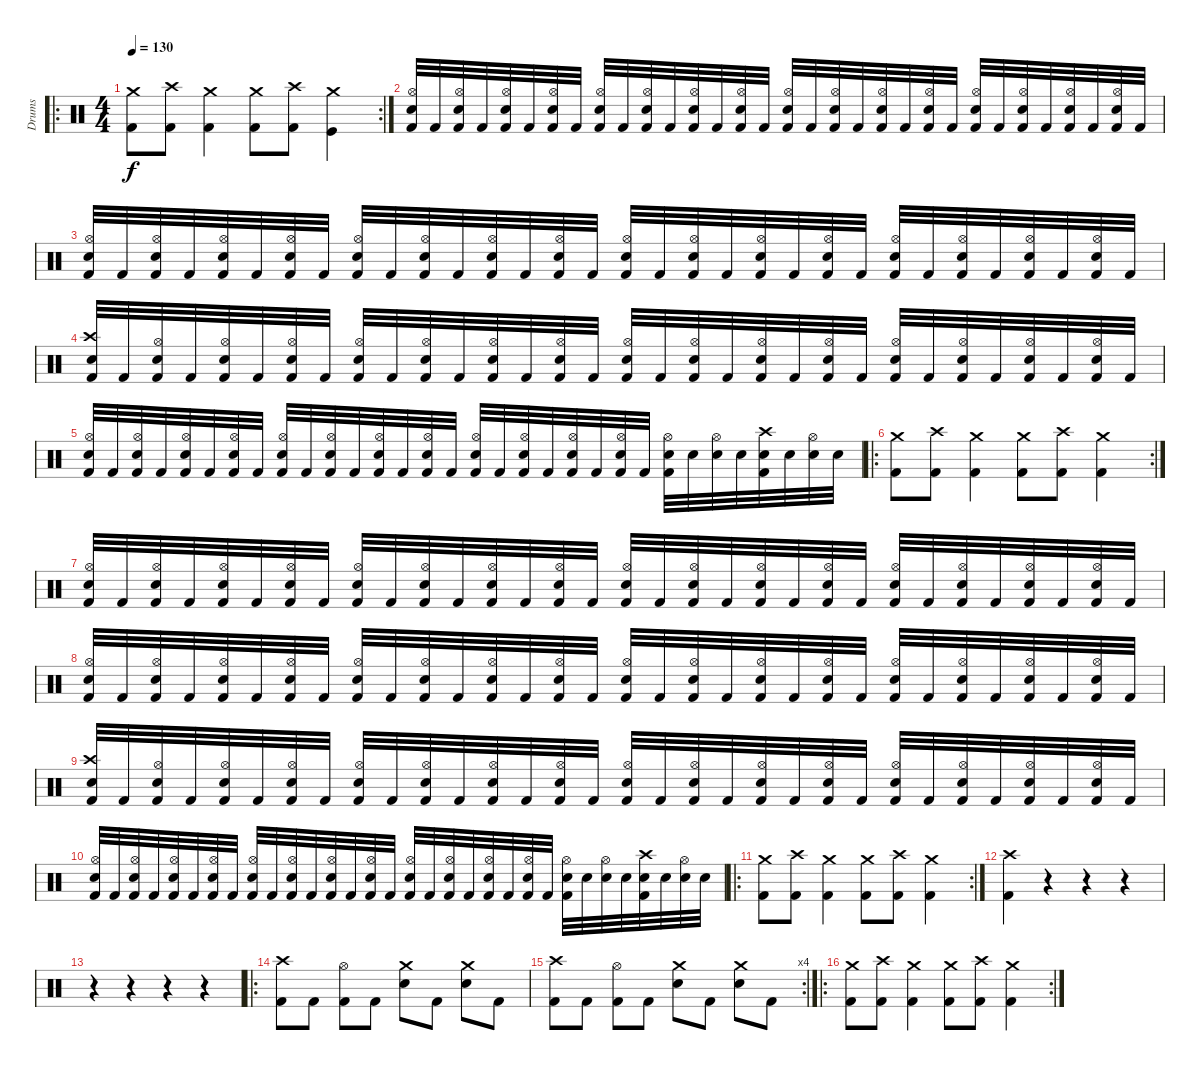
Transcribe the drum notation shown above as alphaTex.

\track ("Drums" "Drums") {instrument percussion}
\staff {score}
\articulation defaults
\ro
\rc 2
\ts (4 4)
\tempo 130
\clef neutral
\ks c
("Crash medium (hit)" "Kick (hit) 2").8{dy f} ("Crash high (hit)" "Kick (hit) 2").8 ("Crash medium (hit)" "Kick (hit) 2").4 ("Crash medium (hit)" "Kick (hit) 2").8 ("Crash high (hit)" "Kick (hit) 2").8 ("Crash medium (hit)" "Kick (hit)").4 |
("Hi-Hat (open)" "Electric Snare (hit)" "Kick (hit) 2").32 "Kick (hit) 2".32 ("Hi-Hat (open)" "Electric Snare (hit)" "Kick (hit) 2").32 "Kick (hit) 2".32 ("Hi-Hat (open)" "Electric Snare (hit)" "Kick (hit) 2").32 "Kick (hit) 2".32 ("Hi-Hat (open)" "Electric Snare (hit)" "Kick (hit) 2").32 "Kick (hit) 2".32 ("Hi-Hat (open)" "Electric Snare (hit)" "Kick (hit) 2").32 "Kick (hit) 2".32 ("Hi-Hat (open)" "Electric Snare (hit)" "Kick (hit) 2").32 "Kick (hit) 2".32 ("Hi-Hat (open)" "Electric Snare (hit)" "Kick (hit) 2").32 "Kick (hit) 2".32 ("Hi-Hat (open)" "Electric Snare (hit)" "Kick (hit) 2").32 "Kick (hit) 2".32 ("Hi-Hat (open)" "Electric Snare (hit)" "Kick (hit) 2").32 "Kick (hit) 2".32 ("Hi-Hat (open)" "Electric Snare (hit)" "Kick (hit) 2").32 "Kick (hit) 2".32 ("Hi-Hat (open)" "Electric Snare (hit)" "Kick (hit) 2").32 "Kick (hit) 2".32 ("Hi-Hat (open)" "Electric Snare (hit)" "Kick (hit) 2").32 "Kick (hit) 2".32 ("Hi-Hat (open)" "Electric Snare (hit)" "Kick (hit) 2").32 "Kick (hit) 2".32 ("Hi-Hat (open)" "Electric Snare (hit)" "Kick (hit) 2").32 "Kick (hit) 2".32 ("Hi-Hat (open)" "Electric Snare (hit)" "Kick (hit) 2").32 "Kick (hit) 2".32 ("Hi-Hat (open)" "Electric Snare (hit)" "Kick (hit) 2").32 "Kick (hit) 2".32 |
("Hi-Hat (open)" "Electric Snare (hit)" "Kick (hit) 2").32 "Kick (hit) 2".32 ("Hi-Hat (open)" "Electric Snare (hit)" "Kick (hit) 2").32 "Kick (hit) 2".32 ("Hi-Hat (open)" "Electric Snare (hit)" "Kick (hit) 2").32 "Kick (hit) 2".32 ("Hi-Hat (open)" "Electric Snare (hit)" "Kick (hit) 2").32 "Kick (hit) 2".32 ("Hi-Hat (open)" "Electric Snare (hit)" "Kick (hit) 2").32 "Kick (hit) 2".32 ("Hi-Hat (open)" "Electric Snare (hit)" "Kick (hit) 2").32 "Kick (hit) 2".32 ("Hi-Hat (open)" "Electric Snare (hit)" "Kick (hit) 2").32 "Kick (hit) 2".32 ("Hi-Hat (open)" "Electric Snare (hit)" "Kick (hit) 2").32 "Kick (hit) 2".32 ("Hi-Hat (open)" "Electric Snare (hit)" "Kick (hit) 2").32 "Kick (hit) 2".32 ("Hi-Hat (open)" "Electric Snare (hit)" "Kick (hit) 2").32 "Kick (hit) 2".32 ("Hi-Hat (open)" "Electric Snare (hit)" "Kick (hit) 2").32 "Kick (hit) 2".32 ("Hi-Hat (open)" "Electric Snare (hit)" "Kick (hit) 2").32 "Kick (hit) 2".32 ("Hi-Hat (open)" "Electric Snare (hit)" "Kick (hit) 2").32 "Kick (hit) 2".32 ("Hi-Hat (open)" "Electric Snare (hit)" "Kick (hit) 2").32 "Kick (hit) 2".32 ("Hi-Hat (open)" "Electric Snare (hit)" "Kick (hit) 2").32 "Kick (hit) 2".32 ("Hi-Hat (open)" "Electric Snare (hit)" "Kick (hit) 2").32 "Kick (hit) 2".32 |
("Crash high (hit)" "Electric Snare (hit)" "Kick (hit) 2").32 "Kick (hit) 2".32 ("Hi-Hat (open)" "Electric Snare (hit)" "Kick (hit) 2").32 "Kick (hit) 2".32 ("Hi-Hat (open)" "Electric Snare (hit)" "Kick (hit) 2").32 "Kick (hit) 2".32 ("Hi-Hat (open)" "Electric Snare (hit)" "Kick (hit) 2").32 "Kick (hit) 2".32 ("Hi-Hat (open)" "Electric Snare (hit)" "Kick (hit) 2").32 "Kick (hit) 2".32 ("Hi-Hat (open)" "Electric Snare (hit)" "Kick (hit) 2").32 "Kick (hit) 2".32 ("Hi-Hat (open)" "Electric Snare (hit)" "Kick (hit) 2").32 "Kick (hit) 2".32 ("Hi-Hat (open)" "Electric Snare (hit)" "Kick (hit) 2").32 "Kick (hit) 2".32 ("Hi-Hat (open)" "Electric Snare (hit)" "Kick (hit) 2").32 "Kick (hit) 2".32 ("Hi-Hat (open)" "Electric Snare (hit)" "Kick (hit) 2").32 "Kick (hit) 2".32 ("Hi-Hat (open)" "Electric Snare (hit)" "Kick (hit) 2").32 "Kick (hit) 2".32 ("Hi-Hat (open)" "Electric Snare (hit)" "Kick (hit) 2").32 "Kick (hit) 2".32 ("Hi-Hat (open)" "Electric Snare (hit)" "Kick (hit) 2").32 "Kick (hit) 2".32 ("Hi-Hat (open)" "Electric Snare (hit)" "Kick (hit) 2").32 "Kick (hit) 2".32 ("Hi-Hat (open)" "Electric Snare (hit)" "Kick (hit) 2").32 "Kick (hit) 2".32 ("Hi-Hat (open)" "Electric Snare (hit)" "Kick (hit) 2").32 "Kick (hit) 2".32 |
("Hi-Hat (open)" "Electric Snare (hit)" "Kick (hit) 2").32 "Kick (hit) 2".32 ("Hi-Hat (open)" "Electric Snare (hit)" "Kick (hit) 2").32 "Kick (hit) 2".32 ("Hi-Hat (open)" "Electric Snare (hit)" "Kick (hit) 2").32 "Kick (hit) 2".32 ("Hi-Hat (open)" "Electric Snare (hit)" "Kick (hit) 2").32 "Kick (hit) 2".32 ("Hi-Hat (open)" "Electric Snare (hit)" "Kick (hit) 2").32 "Kick (hit) 2".32 ("Hi-Hat (open)" "Electric Snare (hit)" "Kick (hit) 2").32 "Kick (hit) 2".32 ("Hi-Hat (open)" "Electric Snare (hit)" "Kick (hit) 2").32 "Kick (hit) 2".32 ("Hi-Hat (open)" "Electric Snare (hit)" "Kick (hit) 2").32 "Kick (hit) 2".32 ("Hi-Hat (open)" "Electric Snare (hit)" "Kick (hit) 2").32 "Kick (hit) 2".32 ("Hi-Hat (open)" "Electric Snare (hit)" "Kick (hit) 2").32 "Kick (hit) 2".32 ("Hi-Hat (open)" "Electric Snare (hit)" "Kick (hit) 2").32 "Kick (hit) 2".32 ("Hi-Hat (open)" "Electric Snare (hit)" "Kick (hit) 2").32 "Kick (hit) 2".32 ("Hi-Hat (open)" "Electric Snare (hit)" "Kick (hit) 2").32 "Electric Snare (hit)".32 ("Hi-Hat (open)" "Electric Snare (hit)").32 "Electric Snare (hit)".32 ("Crash high (hit)" "Electric Snare (hit)" "Kick (hit) 2").32 "Electric Snare (hit)".32 ("Hi-Hat (open)" "Electric Snare (hit)").32 "Electric Snare (hit)".32 |
\ro
\rc 2
("Crash medium (hit)" "Kick (hit) 2").8 ("Crash high (hit)" "Kick (hit) 2").8 ("Crash medium (hit)" "Kick (hit) 2").4 ("Crash medium (hit)" "Kick (hit) 2").8 ("Crash high (hit)" "Kick (hit) 2").8 ("Crash medium (hit)" "Kick (hit) 2").4 |
("Hi-Hat (open)" "Electric Snare (hit)" "Kick (hit) 2").32 "Kick (hit) 2".32 ("Hi-Hat (open)" "Electric Snare (hit)" "Kick (hit) 2").32 "Kick (hit) 2".32 ("Hi-Hat (open)" "Electric Snare (hit)" "Kick (hit) 2").32 "Kick (hit) 2".32 ("Hi-Hat (open)" "Electric Snare (hit)" "Kick (hit) 2").32 "Kick (hit) 2".32 ("Hi-Hat (open)" "Electric Snare (hit)" "Kick (hit) 2").32 "Kick (hit) 2".32 ("Hi-Hat (open)" "Electric Snare (hit)" "Kick (hit) 2").32 "Kick (hit) 2".32 ("Hi-Hat (open)" "Electric Snare (hit)" "Kick (hit) 2").32 "Kick (hit) 2".32 ("Hi-Hat (open)" "Electric Snare (hit)" "Kick (hit) 2").32 "Kick (hit) 2".32 ("Hi-Hat (open)" "Electric Snare (hit)" "Kick (hit) 2").32 "Kick (hit) 2".32 ("Hi-Hat (open)" "Electric Snare (hit)" "Kick (hit) 2").32 "Kick (hit) 2".32 ("Hi-Hat (open)" "Electric Snare (hit)" "Kick (hit) 2").32 "Kick (hit) 2".32 ("Hi-Hat (open)" "Electric Snare (hit)" "Kick (hit) 2").32 "Kick (hit) 2".32 ("Hi-Hat (open)" "Electric Snare (hit)" "Kick (hit) 2").32 "Kick (hit) 2".32 ("Hi-Hat (open)" "Electric Snare (hit)" "Kick (hit) 2").32 "Kick (hit) 2".32 ("Hi-Hat (open)" "Electric Snare (hit)" "Kick (hit) 2").32 "Kick (hit) 2".32 ("Hi-Hat (open)" "Electric Snare (hit)" "Kick (hit) 2").32 "Kick (hit) 2".32 |
("Hi-Hat (open)" "Electric Snare (hit)" "Kick (hit) 2").32 "Kick (hit) 2".32 ("Hi-Hat (open)" "Electric Snare (hit)" "Kick (hit) 2").32 "Kick (hit) 2".32 ("Hi-Hat (open)" "Electric Snare (hit)" "Kick (hit) 2").32 "Kick (hit) 2".32 ("Hi-Hat (open)" "Electric Snare (hit)" "Kick (hit) 2").32 "Kick (hit) 2".32 ("Hi-Hat (open)" "Electric Snare (hit)" "Kick (hit) 2").32 "Kick (hit) 2".32 ("Hi-Hat (open)" "Electric Snare (hit)" "Kick (hit) 2").32 "Kick (hit) 2".32 ("Hi-Hat (open)" "Electric Snare (hit)" "Kick (hit) 2").32 "Kick (hit) 2".32 ("Hi-Hat (open)" "Electric Snare (hit)" "Kick (hit) 2").32 "Kick (hit) 2".32 ("Hi-Hat (open)" "Electric Snare (hit)" "Kick (hit) 2").32 "Kick (hit) 2".32 ("Hi-Hat (open)" "Electric Snare (hit)" "Kick (hit) 2").32 "Kick (hit) 2".32 ("Hi-Hat (open)" "Electric Snare (hit)" "Kick (hit) 2").32 "Kick (hit) 2".32 ("Hi-Hat (open)" "Electric Snare (hit)" "Kick (hit) 2").32 "Kick (hit) 2".32 ("Hi-Hat (open)" "Electric Snare (hit)" "Kick (hit) 2").32 "Kick (hit) 2".32 ("Hi-Hat (open)" "Electric Snare (hit)" "Kick (hit) 2").32 "Kick (hit) 2".32 ("Hi-Hat (open)" "Electric Snare (hit)" "Kick (hit) 2").32 "Kick (hit) 2".32 ("Hi-Hat (open)" "Electric Snare (hit)" "Kick (hit) 2").32 "Kick (hit) 2".32 |
("Crash high (hit)" "Electric Snare (hit)" "Kick (hit) 2").32 "Kick (hit) 2".32 ("Hi-Hat (open)" "Electric Snare (hit)" "Kick (hit) 2").32 "Kick (hit) 2".32 ("Hi-Hat (open)" "Electric Snare (hit)" "Kick (hit) 2").32 "Kick (hit) 2".32 ("Hi-Hat (open)" "Electric Snare (hit)" "Kick (hit) 2").32 "Kick (hit) 2".32 ("Hi-Hat (open)" "Electric Snare (hit)" "Kick (hit) 2").32 "Kick (hit) 2".32 ("Hi-Hat (open)" "Electric Snare (hit)" "Kick (hit) 2").32 "Kick (hit) 2".32 ("Hi-Hat (open)" "Electric Snare (hit)" "Kick (hit) 2").32 "Kick (hit) 2".32 ("Hi-Hat (open)" "Electric Snare (hit)" "Kick (hit) 2").32 "Kick (hit) 2".32 ("Hi-Hat (open)" "Electric Snare (hit)" "Kick (hit) 2").32 "Kick (hit) 2".32 ("Hi-Hat (open)" "Electric Snare (hit)" "Kick (hit) 2").32 "Kick (hit) 2".32 ("Hi-Hat (open)" "Electric Snare (hit)" "Kick (hit) 2").32 "Kick (hit) 2".32 ("Hi-Hat (open)" "Electric Snare (hit)" "Kick (hit) 2").32 "Kick (hit) 2".32 ("Hi-Hat (open)" "Electric Snare (hit)" "Kick (hit) 2").32 "Kick (hit) 2".32 ("Hi-Hat (open)" "Electric Snare (hit)" "Kick (hit) 2").32 "Kick (hit) 2".32 ("Hi-Hat (open)" "Electric Snare (hit)" "Kick (hit) 2").32 "Kick (hit) 2".32 ("Hi-Hat (open)" "Electric Snare (hit)" "Kick (hit) 2").32 "Kick (hit) 2".32 |
("Hi-Hat (open)" "Electric Snare (hit)" "Kick (hit) 2").32 "Kick (hit) 2".32 ("Hi-Hat (open)" "Electric Snare (hit)" "Kick (hit) 2").32 "Kick (hit) 2".32 ("Hi-Hat (open)" "Electric Snare (hit)" "Kick (hit) 2").32 "Kick (hit) 2".32 ("Hi-Hat (open)" "Electric Snare (hit)" "Kick (hit) 2").32 "Kick (hit) 2".32 ("Hi-Hat (open)" "Electric Snare (hit)" "Kick (hit) 2").32 "Kick (hit) 2".32 ("Hi-Hat (open)" "Electric Snare (hit)" "Kick (hit) 2").32 "Kick (hit) 2".32 ("Hi-Hat (open)" "Electric Snare (hit)" "Kick (hit) 2").32 "Kick (hit) 2".32 ("Hi-Hat (open)" "Electric Snare (hit)" "Kick (hit) 2").32 "Kick (hit) 2".32 ("Hi-Hat (open)" "Electric Snare (hit)" "Kick (hit) 2").32 "Kick (hit) 2".32 ("Hi-Hat (open)" "Electric Snare (hit)" "Kick (hit) 2").32 "Kick (hit) 2".32 ("Hi-Hat (open)" "Electric Snare (hit)" "Kick (hit) 2").32 "Kick (hit) 2".32 ("Hi-Hat (open)" "Electric Snare (hit)" "Kick (hit) 2").32 "Kick (hit) 2".32 ("Hi-Hat (open)" "Electric Snare (hit)" "Kick (hit) 2").32 "Electric Snare (hit)".32 ("Hi-Hat (open)" "Electric Snare (hit)").32 "Electric Snare (hit)".32 ("Crash high (hit)" "Electric Snare (hit)" "Kick (hit) 2").32 "Electric Snare (hit)".32 ("Hi-Hat (open)" "Electric Snare (hit)").32 "Electric Snare (hit)".32 |
\ro
\rc 2
("Crash medium (hit)" "Kick (hit) 2").8 ("Crash high (hit)" "Kick (hit) 2").8 ("Crash medium (hit)" "Kick (hit) 2").4 ("Crash medium (hit)" "Kick (hit) 2").8 ("Crash high (hit)" "Kick (hit) 2").8 ("Crash medium (hit)" "Kick (hit) 2").4 |
("Crash high (hit)" "Kick (hit) 2").4 r.4 r.4 r.4 |
r.4 r.4 r.4 r.4 |
\ro
("Crash high (hit)" "Kick (hit) 2").8 "Kick (hit) 2".8 ("Hi-Hat (open)" "Kick (hit) 2").8 "Kick (hit) 2".8 ("Crash medium (hit)" "Electric Snare (hit)").8 "Kick (hit) 2".8 ("Crash medium (hit)" "Electric Snare (hit)").8 "Kick (hit) 2".8 |
\rc 4
("Crash high (hit)" "Kick (hit) 2").8 "Kick (hit) 2".8 ("Hi-Hat (open)" "Kick (hit) 2").8 "Kick (hit) 2".8 ("Crash medium (hit)" "Electric Snare (hit)").8 "Kick (hit) 2".8 ("Crash medium (hit)" "Electric Snare (hit)").8 "Kick (hit) 2".8 |
\ro
\rc 2
("Crash medium (hit)" "Kick (hit) 2").8 ("Crash high (hit)" "Kick (hit) 2").8 ("Crash medium (hit)" "Kick (hit) 2").4 ("Crash medium (hit)" "Kick (hit) 2").8 ("Crash high (hit)" "Kick (hit) 2").8 ("Crash medium (hit)" "Kick (hit) 2").4
